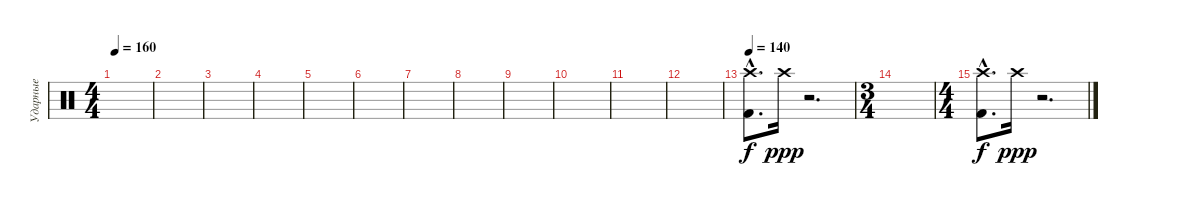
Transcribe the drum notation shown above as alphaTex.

\track ("Ударные" "Ударные") {instrument percussion}
\staff {score}
\articulation defaults
\ts (4 4)
\tempo 160
\clef neutral
\ks c
|
|
|
|
|
|
|
|
|
|
|
|
\tempo 140
("Crash high (hit)"{hac} "Kick (hit) 2"{hac}).8{d dy f} "Crash high (hit)".16{dy ppp volume 0} r.2{d} |
\ts (3 4)
|
\ts (4 4)
("Crash high (hit)"{hac} "Kick (hit) 2"{hac}).8{d dy f volume 10} "Crash high (hit)".16{dy ppp volume 0} r.2{d}
